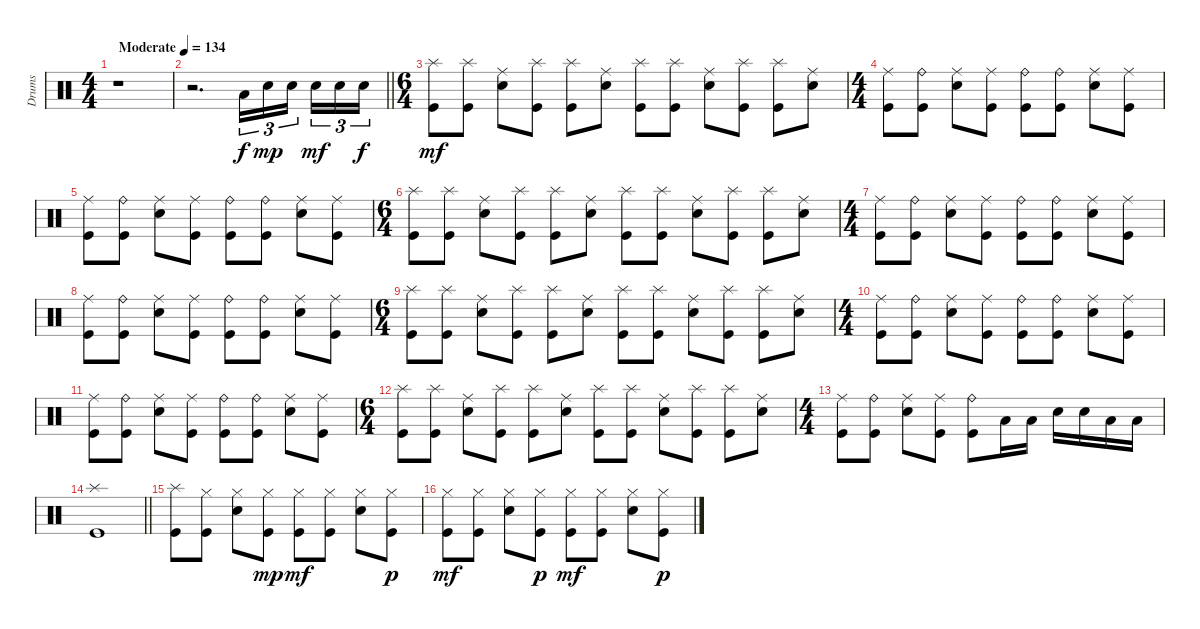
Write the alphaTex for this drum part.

\track ("Drums" "Drums") {instrument percussion}
\staff {score}
\articulation defaults
\ts (4 4)
\tempo (134 "Moderate")
\clef neutral
\ks c
r.1{dy f} |
\barLineRight lightlight
r.2{d} "Low Tom (hit)".16{tu (3 2) beam merge} "Snare (hit) 2".16{tu (3 2) dy mp beam merge} "Snare (hit) 2".16{tu (3 2) beam splitsecondary} "Snare (hit) 2".16{tu (3 2) dy mf} "Snare (hit) 2".16{tu (3 2)} "Snare (hit) 2".16{tu (3 2) dy f} |
\ts (6 4)
("Splash (hit)" "Kick (hit)").8{dy mf} ("Splash (hit)" "Kick (hit)").8 ("Ride (middle)" "Snare (hit) 2").8 ("Splash (hit)" "Kick (hit)").8 ("Splash (hit)" "Kick (hit)").8 ("Ride (middle)" "Snare (hit) 2").8 ("Splash (hit)" "Kick (hit)").8 ("Splash (hit)" "Kick (hit)").8 ("Ride (middle)" "Snare (hit) 2").8 ("Splash (hit)" "Kick (hit)").8 ("Splash (hit)" "Kick (hit)").8 ("Ride (middle)" "Snare (hit) 2").8 |
\ts (4 4)
("Ride (middle)" "Kick (hit)").8 ("Ride (bell)" "Kick (hit)").8 ("Ride (middle)" "Snare (hit) 2").8 ("Ride (middle)" "Kick (hit)").8 ("Ride (bell)" "Kick (hit)").8 ("Ride (bell)" "Kick (hit)").8 ("Ride (middle)" "Snare (hit) 2").8 ("Ride (middle)" "Kick (hit)").8 |
("Ride (middle)" "Kick (hit)").8 ("Ride (bell)" "Kick (hit)").8 ("Ride (middle)" "Snare (hit) 2").8 ("Ride (middle)" "Kick (hit)").8 ("Ride (bell)" "Kick (hit)").8 ("Ride (bell)" "Kick (hit)").8 ("Ride (middle)" "Snare (hit) 2").8 ("Ride (middle)" "Kick (hit)").8 |
\ts (6 4)
("Splash (hit)" "Kick (hit)").8 ("Splash (hit)" "Kick (hit)").8 ("Ride (middle)" "Snare (hit) 2").8 ("Splash (hit)" "Kick (hit)").8 ("Splash (hit)" "Kick (hit)").8 ("Ride (middle)" "Snare (hit) 2").8 ("Splash (hit)" "Kick (hit)").8 ("Splash (hit)" "Kick (hit)").8 ("Ride (middle)" "Snare (hit) 2").8 ("Splash (hit)" "Kick (hit)").8 ("Splash (hit)" "Kick (hit)").8 ("Ride (middle)" "Snare (hit) 2").8 |
\ts (4 4)
("Ride (middle)" "Kick (hit)").8 ("Ride (bell)" "Kick (hit)").8 ("Ride (middle)" "Snare (hit) 2").8 ("Ride (middle)" "Kick (hit)").8 ("Ride (bell)" "Kick (hit)").8 ("Ride (bell)" "Kick (hit)").8 ("Ride (middle)" "Snare (hit) 2").8 ("Ride (middle)" "Kick (hit)").8 |
("Ride (middle)" "Kick (hit)").8 ("Ride (bell)" "Kick (hit)").8 ("Ride (middle)" "Snare (hit) 2").8 ("Ride (middle)" "Kick (hit)").8 ("Ride (bell)" "Kick (hit)").8 ("Ride (bell)" "Kick (hit)").8 ("Ride (middle)" "Snare (hit) 2").8 ("Ride (middle)" "Kick (hit)").8 |
\ts (6 4)
("Splash (hit)" "Kick (hit)").8 ("Splash (hit)" "Kick (hit)").8 ("Ride (middle)" "Snare (hit) 2").8 ("Splash (hit)" "Kick (hit)").8 ("Splash (hit)" "Kick (hit)").8 ("Ride (middle)" "Snare (hit) 2").8 ("Splash (hit)" "Kick (hit)").8 ("Splash (hit)" "Kick (hit)").8 ("Ride (middle)" "Snare (hit) 2").8 ("Splash (hit)" "Kick (hit)").8 ("Splash (hit)" "Kick (hit)").8 ("Ride (middle)" "Snare (hit) 2").8 |
\ts (4 4)
("Ride (middle)" "Kick (hit)").8 ("Ride (bell)" "Kick (hit)").8 ("Ride (middle)" "Snare (hit) 2").8 ("Ride (middle)" "Kick (hit)").8 ("Ride (bell)" "Kick (hit)").8 ("Ride (bell)" "Kick (hit)").8 ("Ride (middle)" "Snare (hit) 2").8 ("Ride (middle)" "Kick (hit)").8 |
("Ride (middle)" "Kick (hit)").8 ("Ride (bell)" "Kick (hit)").8 ("Ride (middle)" "Snare (hit) 2").8 ("Ride (middle)" "Kick (hit)").8 ("Ride (bell)" "Kick (hit)").8 ("Ride (bell)" "Kick (hit)").8 ("Ride (middle)" "Snare (hit) 2").8 ("Ride (middle)" "Kick (hit)").8 |
\ts (6 4)
("Splash (hit)" "Kick (hit)").8 ("Splash (hit)" "Kick (hit)").8 ("Ride (middle)" "Snare (hit) 2").8 ("Splash (hit)" "Kick (hit)").8 ("Splash (hit)" "Kick (hit)").8 ("Ride (middle)" "Snare (hit) 2").8 ("Splash (hit)" "Kick (hit)").8 ("Splash (hit)" "Kick (hit)").8 ("Ride (middle)" "Snare (hit) 2").8 ("Splash (hit)" "Kick (hit)").8 ("Splash (hit)" "Kick (hit)").8 ("Ride (middle)" "Snare (hit) 2").8 |
\ts (4 4)
("Ride (middle)" "Kick (hit)").8 ("Ride (bell)" "Kick (hit)").8 ("Ride (middle)" "Snare (hit) 2").8 ("Ride (middle)" "Kick (hit)").8 ("Ride (bell)" "Kick (hit)").8 "Low Tom (hit)".16 "Low Tom (hit)".16 "Snare (hit) 2".16 "Snare (hit) 2".16 "Low Tom (hit)".16 "Low Tom (hit)".16 |
\barLineRight lightlight
("Splash (hit)" "Kick (hit)").1 |
("Splash (hit)" "Kick (hit)").8 ("Hi-Hat (closed)" "Kick (hit)").8 ("Hi-Hat (closed)" "Snare (hit) 2").8 ("Hi-Hat (closed)" "Kick (hit)").8{dy mp} ("Hi-Hat (closed)" "Kick (hit)").8{dy mf} ("Hi-Hat (closed)" "Kick (hit)").8 ("Hi-Hat (closed)" "Snare (hit) 2").8 ("Hi-Hat (closed)" "Kick (hit)").8{dy p} |
("Hi-Hat (closed)" "Kick (hit)").8{dy mf} ("Hi-Hat (closed)" "Kick (hit)").8 ("Hi-Hat (closed)" "Snare (hit) 2").8 ("Hi-Hat (closed)" "Kick (hit)").8{dy p} ("Hi-Hat (closed)" "Kick (hit)").8{dy mf} ("Hi-Hat (closed)" "Kick (hit)").8 ("Hi-Hat (closed)" "Snare (hit) 2").8 ("Hi-Hat (closed)" "Kick (hit)").8{dy p}
